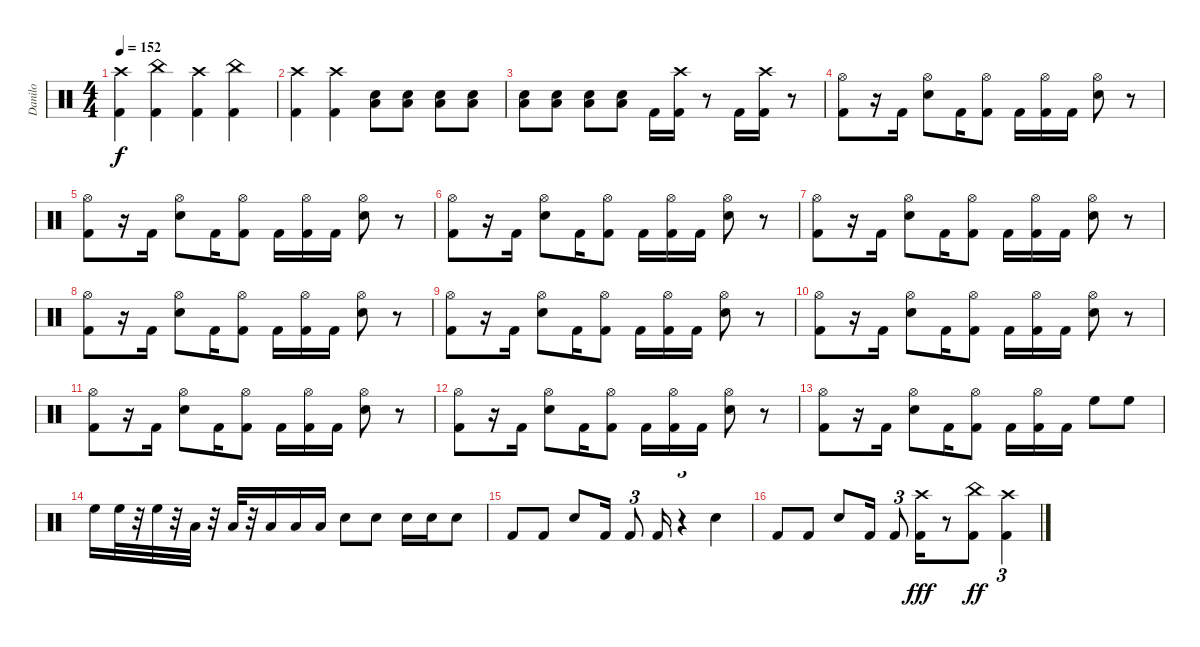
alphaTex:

\track ("Danilo" "Danilo") {instrument percussion}
\staff {score}
\articulation defaults
\ts (4 4)
\tempo 152
\clef neutral
\ks c
("Kick (hit) 2" "Crash high (hit)").4{dy f} ("Kick (hit) 2" "China (hit)").4 ("Kick (hit) 2" "Crash high (hit)").4 ("Kick (hit) 2" "China (hit)").4 |
("Kick (hit) 2" "Crash high (hit)").4 ("Kick (hit) 2" "Crash high (hit)").4 ("Low Floor Tom (hit)" "Snare (hit) 2").8 ("Low Floor Tom (hit)" "Snare (hit) 2").8 ("Low Floor Tom (hit)" "Snare (hit) 2").8 ("Low Floor Tom (hit)" "Snare (hit) 2").8 |
("Low Floor Tom (hit)" "Snare (hit) 2").8 ("Low Floor Tom (hit)" "Snare (hit) 2").8 ("Low Floor Tom (hit)" "Snare (hit) 2").8 ("Low Floor Tom (hit)" "Snare (hit) 2").8 "Kick (hit) 2".16 ("Crash high (hit)" "Kick (hit) 2").16 r.8 "Kick (hit) 2".16 ("Crash high (hit)" "Kick (hit) 2").16 r.8 |
("Hi-Hat (open)" "Kick (hit) 2").8 r.16 "Kick (hit) 2".16 ("Hi-Hat (open)" "Snare (hit) 2").8 "Kick (hit) 2".16 ("Hi-Hat (open)" "Kick (hit) 2").8 "Kick (hit) 2".16 ("Hi-Hat (open)" "Kick (hit) 2").16 "Kick (hit) 2".16 ("Hi-Hat (open)" "Snare (hit) 2").8 r.8 |
("Hi-Hat (open)" "Kick (hit) 2").8 r.16 "Kick (hit) 2".16 ("Hi-Hat (open)" "Snare (hit) 2").8 "Kick (hit) 2".16 ("Hi-Hat (open)" "Kick (hit) 2").8 "Kick (hit) 2".16 ("Hi-Hat (open)" "Kick (hit) 2").16 "Kick (hit) 2".16 ("Hi-Hat (open)" "Snare (hit) 2").8 r.8 |
("Hi-Hat (open)" "Kick (hit) 2").8 r.16 "Kick (hit) 2".16 ("Hi-Hat (open)" "Snare (hit) 2").8 "Kick (hit) 2".16 ("Hi-Hat (open)" "Kick (hit) 2").8 "Kick (hit) 2".16 ("Hi-Hat (open)" "Kick (hit) 2").16 "Kick (hit) 2".16 ("Hi-Hat (open)" "Snare (hit) 2").8 r.8 |
("Hi-Hat (open)" "Kick (hit) 2").8 r.16 "Kick (hit) 2".16 ("Hi-Hat (open)" "Snare (hit) 2").8 "Kick (hit) 2".16 ("Hi-Hat (open)" "Kick (hit) 2").8 "Kick (hit) 2".16 ("Hi-Hat (open)" "Kick (hit) 2").16 "Kick (hit) 2".16 ("Hi-Hat (open)" "Snare (hit) 2").8 r.8 |
("Hi-Hat (open)" "Kick (hit) 2").8 r.16 "Kick (hit) 2".16 ("Hi-Hat (open)" "Snare (hit) 2").8 "Kick (hit) 2".16 ("Hi-Hat (open)" "Kick (hit) 2").8 "Kick (hit) 2".16 ("Hi-Hat (open)" "Kick (hit) 2").16 "Kick (hit) 2".16 ("Hi-Hat (open)" "Snare (hit) 2").8 r.8 |
("Hi-Hat (open)" "Kick (hit) 2").8 r.16 "Kick (hit) 2".16 ("Hi-Hat (open)" "Snare (hit) 2").8 "Kick (hit) 2".16 ("Hi-Hat (open)" "Kick (hit) 2").8 "Kick (hit) 2".16 ("Hi-Hat (open)" "Kick (hit) 2").16 "Kick (hit) 2".16 ("Hi-Hat (open)" "Snare (hit) 2").8 r.8 |
("Hi-Hat (open)" "Kick (hit) 2").8 r.16 "Kick (hit) 2".16 ("Hi-Hat (open)" "Snare (hit) 2").8 "Kick (hit) 2".16 ("Hi-Hat (open)" "Kick (hit) 2").8 "Kick (hit) 2".16 ("Hi-Hat (open)" "Kick (hit) 2").16 "Kick (hit) 2".16 ("Hi-Hat (open)" "Snare (hit) 2").8 r.8 |
("Hi-Hat (open)" "Kick (hit) 2").8 r.16 "Kick (hit) 2".16 ("Hi-Hat (open)" "Snare (hit) 2").8 "Kick (hit) 2".16 ("Hi-Hat (open)" "Kick (hit) 2").8 "Kick (hit) 2".16 ("Hi-Hat (open)" "Kick (hit) 2").16 "Kick (hit) 2".16 ("Hi-Hat (open)" "Snare (hit) 2").8 r.8 |
("Hi-Hat (open)" "Kick (hit) 2").8 r.16 "Kick (hit) 2".16 ("Hi-Hat (open)" "Snare (hit) 2").8 "Kick (hit) 2".16 ("Hi-Hat (open)" "Kick (hit) 2").8 "Kick (hit) 2".16 ("Hi-Hat (open)" "Kick (hit) 2").16 "Kick (hit) 2".16 ("Hi-Hat (open)" "Snare (hit) 2").8 r.8 |
("Hi-Hat (open)" "Kick (hit) 2").8 r.16 "Kick (hit) 2".16 ("Hi-Hat (open)" "Snare (hit) 2").8 "Kick (hit) 2".16 ("Hi-Hat (open)" "Kick (hit) 2").8 "Kick (hit) 2".16 ("Hi-Hat (open)" "Kick (hit) 2").16 "Kick (hit) 2".16 "High Floor Tom (hit)".8 "High Floor Tom (hit)".8 |
"High Floor Tom (hit)".16 "High Floor Tom (hit)".32 r.32 "High Floor Tom (hit)".32 r.32 "Low Tom (hit)".32 r.32 "Low Tom (hit)".32 r.32 "Low Tom (hit)".16 "Low Tom (hit)".16 "Low Tom (hit)".16 "Snare (hit) 2".8 "Snare (hit) 2".8 "Snare (hit) 2".16 "Snare (hit) 2".16 "Snare (hit) 2".8 |
"Kick (hit) 2".8 "Kick (hit) 2".8 "Snare (hit) 2".8 "Kick (hit) 2".16 "Kick (hit) 2".8{tu (3 2)} "Kick (hit) 2".16 r.4{tu (3 2)} "Snare (hit) 2".4 |
"Kick (hit) 2".8 "Kick (hit) 2".8 "Snare (hit) 2".8 "Kick (hit) 2".16 "Kick (hit) 2".8{tu (3 2)} ("Crash high (hit)" "Kick (hit) 2").16{dy fff} r.8 ("China (hit)" "Kick (hit) 2").8{dy ff} ("Crash high (hit)" "Kick (hit) 2").4{tu (3 2)}
